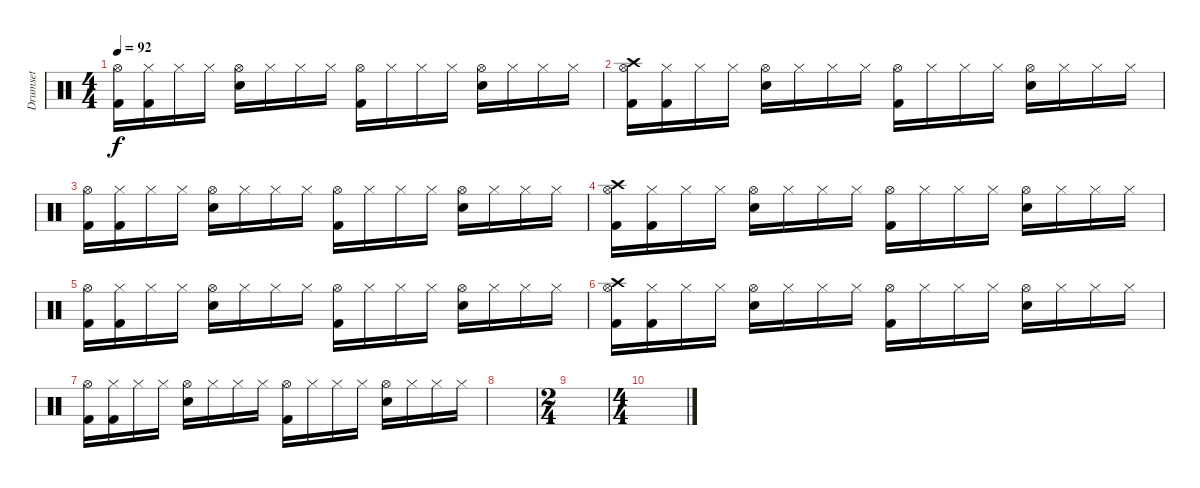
\track ("Drumset" "Drumset") {instrument percussion}
\staff {score}
\articulation defaults
\ts (4 4)
\tempo 92
\clef neutral
\ks c
("Hi-Hat (open)" "Kick (hit) 2").16{dy f} ("Hi-Hat (closed)" "Kick (hit) 2").16 "Hi-Hat (closed)".16 "Hi-Hat (closed)".16 ("Hi-Hat (open)" "Electric Snare (hit)").16 "Hi-Hat (closed)".16 "Hi-Hat (closed)".16 "Hi-Hat (closed)".16 ("Hi-Hat (open)" "Kick (hit) 2").16 "Hi-Hat (closed)".16 "Hi-Hat (closed)".16 "Hi-Hat (closed)".16 ("Hi-Hat (open)" "Electric Snare (hit)").16 "Hi-Hat (closed)".16 "Hi-Hat (closed)".16 "Hi-Hat (closed)".16 |
("Crash high (hit)" "Hi-Hat (open)" "Kick (hit) 2").16 ("Hi-Hat (closed)" "Kick (hit) 2").16 "Hi-Hat (closed)".16 "Hi-Hat (closed)".16 ("Hi-Hat (open)" "Electric Snare (hit)").16 "Hi-Hat (closed)".16 "Hi-Hat (closed)".16 "Hi-Hat (closed)".16 ("Hi-Hat (open)" "Kick (hit) 2").16 "Hi-Hat (closed)".16 "Hi-Hat (closed)".16 "Hi-Hat (closed)".16 ("Hi-Hat (open)" "Electric Snare (hit)").16 "Hi-Hat (closed)".16 "Hi-Hat (closed)".16 "Hi-Hat (closed)".16 |
("Hi-Hat (open)" "Kick (hit) 2").16 ("Hi-Hat (closed)" "Kick (hit) 2").16 "Hi-Hat (closed)".16 "Hi-Hat (closed)".16 ("Hi-Hat (open)" "Electric Snare (hit)").16 "Hi-Hat (closed)".16 "Hi-Hat (closed)".16 "Hi-Hat (closed)".16 ("Hi-Hat (open)" "Kick (hit) 2").16 "Hi-Hat (closed)".16 "Hi-Hat (closed)".16 "Hi-Hat (closed)".16 ("Hi-Hat (open)" "Electric Snare (hit)").16 "Hi-Hat (closed)".16 "Hi-Hat (closed)".16 "Hi-Hat (closed)".16 |
("Crash high (hit)" "Hi-Hat (open)" "Kick (hit) 2").16 ("Hi-Hat (closed)" "Kick (hit) 2").16 "Hi-Hat (closed)".16 "Hi-Hat (closed)".16 ("Hi-Hat (open)" "Electric Snare (hit)").16 "Hi-Hat (closed)".16 "Hi-Hat (closed)".16 "Hi-Hat (closed)".16 ("Hi-Hat (open)" "Kick (hit) 2").16 "Hi-Hat (closed)".16 "Hi-Hat (closed)".16 "Hi-Hat (closed)".16 ("Hi-Hat (open)" "Electric Snare (hit)").16 "Hi-Hat (closed)".16 "Hi-Hat (closed)".16 "Hi-Hat (closed)".16 |
("Hi-Hat (open)" "Kick (hit) 2").16 ("Hi-Hat (closed)" "Kick (hit) 2").16 "Hi-Hat (closed)".16 "Hi-Hat (closed)".16 ("Hi-Hat (open)" "Electric Snare (hit)").16 "Hi-Hat (closed)".16 "Hi-Hat (closed)".16 "Hi-Hat (closed)".16 ("Hi-Hat (open)" "Kick (hit) 2").16 "Hi-Hat (closed)".16 "Hi-Hat (closed)".16 "Hi-Hat (closed)".16 ("Hi-Hat (open)" "Electric Snare (hit)").16 "Hi-Hat (closed)".16 "Hi-Hat (closed)".16 "Hi-Hat (closed)".16 |
("Crash high (hit)" "Hi-Hat (open)" "Kick (hit) 2").16 ("Hi-Hat (closed)" "Kick (hit) 2").16 "Hi-Hat (closed)".16 "Hi-Hat (closed)".16 ("Hi-Hat (open)" "Electric Snare (hit)").16 "Hi-Hat (closed)".16 "Hi-Hat (closed)".16 "Hi-Hat (closed)".16 ("Hi-Hat (open)" "Kick (hit) 2").16 "Hi-Hat (closed)".16 "Hi-Hat (closed)".16 "Hi-Hat (closed)".16 ("Hi-Hat (open)" "Electric Snare (hit)").16 "Hi-Hat (closed)".16 "Hi-Hat (closed)".16 "Hi-Hat (closed)".16 |
("Hi-Hat (open)" "Kick (hit) 2").16 ("Hi-Hat (closed)" "Kick (hit) 2").16 "Hi-Hat (closed)".16 "Hi-Hat (closed)".16 ("Hi-Hat (open)" "Electric Snare (hit)").16 "Hi-Hat (closed)".16 "Hi-Hat (closed)".16 "Hi-Hat (closed)".16 ("Hi-Hat (open)" "Kick (hit) 2").16 "Hi-Hat (closed)".16 "Hi-Hat (closed)".16 "Hi-Hat (closed)".16 ("Hi-Hat (open)" "Electric Snare (hit)").16 "Hi-Hat (closed)".16 "Hi-Hat (closed)".16 "Hi-Hat (closed)".16 |
|
\ts (2 4)
|
\ts (4 4)
